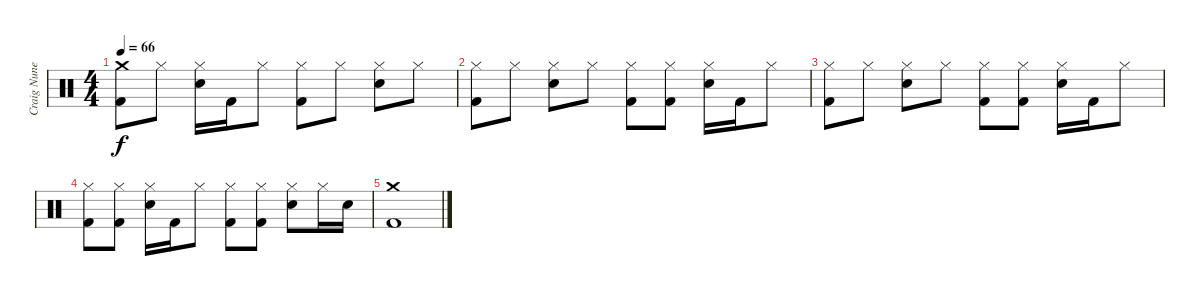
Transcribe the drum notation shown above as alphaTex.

\track ("Craig Nunenmacher" "Craig Nune") {instrument percussion}
\staff {score}
\articulation defaults
\ts (4 4)
\tempo 66
\clef neutral
\ks c
("Crash medium (hit)" "Kick (hit) 2").8{dy f} "Hi-Hat (closed)".8 ("Hi-Hat (closed)" "Snare (hit) 2").16 "Kick (hit) 2".16 "Hi-Hat (closed)".8 ("Hi-Hat (closed)" "Kick (hit) 2").8 "Hi-Hat (closed)".8 ("Hi-Hat (closed)" "Snare (hit) 2").8 "Hi-Hat (closed)".8 |
("Hi-Hat (closed)" "Kick (hit) 2").8 "Hi-Hat (closed)".8 ("Hi-Hat (closed)" "Snare (hit) 2").8 "Hi-Hat (closed)".8 ("Hi-Hat (closed)" "Kick (hit) 2").8 ("Hi-Hat (closed)" "Kick (hit) 2").8 ("Hi-Hat (closed)" "Snare (hit) 2").16 "Kick (hit) 2".16 "Hi-Hat (closed)".8 |
("Hi-Hat (closed)" "Kick (hit) 2").8 "Hi-Hat (closed)".8 ("Hi-Hat (closed)" "Snare (hit) 2").8 "Hi-Hat (closed)".8 ("Hi-Hat (closed)" "Kick (hit) 2").8 ("Hi-Hat (closed)" "Kick (hit) 2").8 ("Hi-Hat (closed)" "Snare (hit) 2").16 "Kick (hit) 2".16 "Hi-Hat (closed)".8 |
("Hi-Hat (closed)" "Kick (hit) 2").8 ("Hi-Hat (closed)" "Kick (hit) 2").8 ("Hi-Hat (closed)" "Snare (hit) 2").16 "Kick (hit) 2".16 "Hi-Hat (closed)".8 ("Hi-Hat (closed)" "Kick (hit) 2").8 ("Hi-Hat (closed)" "Kick (hit) 2").8 ("Hi-Hat (closed)" "Snare (hit) 2").8 "Hi-Hat (closed)".16 "Snare (hit) 2".16 |
("Crash medium (hit)" "Kick (hit) 2").1
